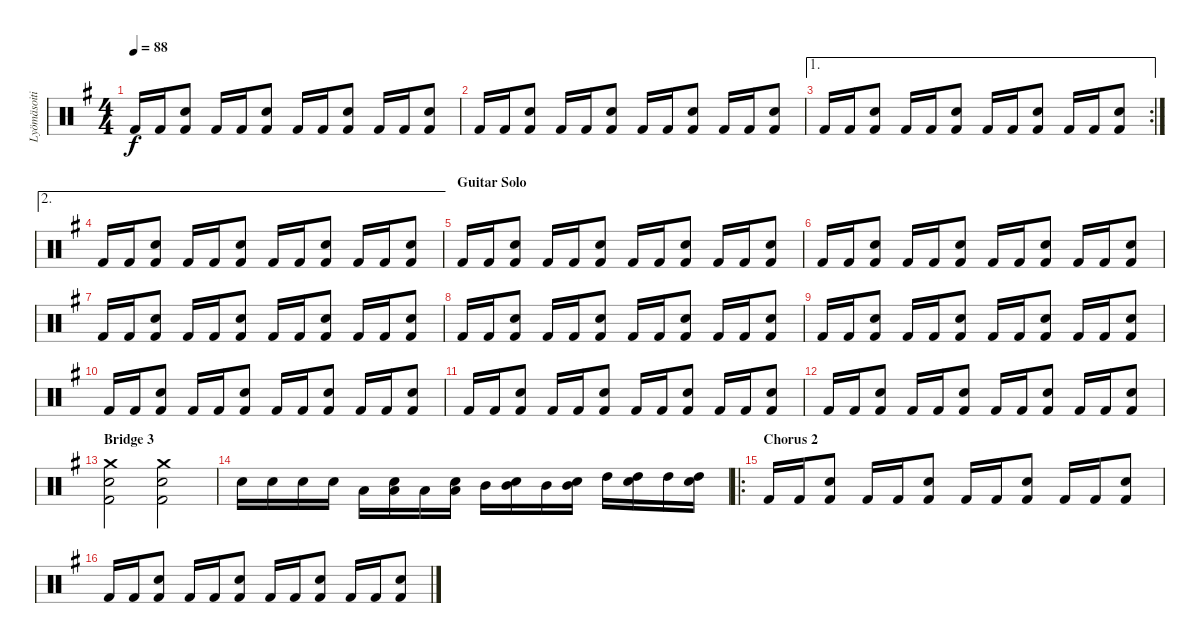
\track ("Lyömäsoitin" "Lyömäsoiti") {instrument percussion}
\staff {score}
\articulation defaults
\ts (4 4)
\tempo 88
\clef neutral
\ks eminor "Kick (hit) 2".16{dy f} "Kick (hit) 2".16
("Snare (hit) 2" "Kick (hit) 2").8 "Kick (hit) 2".16 "Kick (hit) 2".16 ("Snare (hit) 2" "Kick (hit) 2").8 "Kick (hit) 2".16 "Kick (hit) 2".16 ("Snare (hit) 2" "Kick (hit) 2").8 "Kick (hit) 2".16 "Kick (hit) 2".16 ("Snare (hit) 2" "Kick (hit) 2").8 |
"Kick (hit) 2".16 "Kick (hit) 2".16 ("Snare (hit) 2" "Kick (hit) 2").8 "Kick (hit) 2".16 "Kick (hit) 2".16 ("Snare (hit) 2" "Kick (hit) 2").8 "Kick (hit) 2".16 "Kick (hit) 2".16 ("Snare (hit) 2" "Kick (hit) 2").8 "Kick (hit) 2".16 "Kick (hit) 2".16 ("Snare (hit) 2" "Kick (hit) 2").8 |
\ae 1
\rc 2 "Kick (hit) 2".16 "Kick (hit) 2".16
("Snare (hit) 2" "Kick (hit) 2").8 "Kick (hit) 2".16 "Kick (hit) 2".16 ("Snare (hit) 2" "Kick (hit) 2").8 "Kick (hit) 2".16 "Kick (hit) 2".16 ("Snare (hit) 2" "Kick (hit) 2").8 "Kick (hit) 2".16 "Kick (hit) 2".16 ("Snare (hit) 2" "Kick (hit) 2").8 |
\ae 2 "Kick (hit) 2".16 "Kick (hit) 2".16
("Snare (hit) 2" "Kick (hit) 2").8 "Kick (hit) 2".16 "Kick (hit) 2".16 ("Snare (hit) 2" "Kick (hit) 2").8 "Kick (hit) 2".16 "Kick (hit) 2".16 ("Snare (hit) 2" "Kick (hit) 2").8 "Kick (hit) 2".16 "Kick (hit) 2".16 ("Snare (hit) 2" "Kick (hit) 2").8 |
\section ("" "Guitar Solo")
"Kick (hit) 2".16 "Kick (hit) 2".16 ("Snare (hit) 2" "Kick (hit) 2").8 "Kick (hit) 2".16 "Kick (hit) 2".16 ("Snare (hit) 2" "Kick (hit) 2").8 "Kick (hit) 2".16 "Kick (hit) 2".16 ("Snare (hit) 2" "Kick (hit) 2").8 "Kick (hit) 2".16 "Kick (hit) 2".16 ("Snare (hit) 2" "Kick (hit) 2").8 |
"Kick (hit) 2".16 "Kick (hit) 2".16 ("Snare (hit) 2" "Kick (hit) 2").8 "Kick (hit) 2".16 "Kick (hit) 2".16 ("Snare (hit) 2" "Kick (hit) 2").8 "Kick (hit) 2".16 "Kick (hit) 2".16 ("Snare (hit) 2" "Kick (hit) 2").8 "Kick (hit) 2".16 "Kick (hit) 2".16 ("Snare (hit) 2" "Kick (hit) 2").8 |
"Kick (hit) 2".16 "Kick (hit) 2".16 ("Snare (hit) 2" "Kick (hit) 2").8 "Kick (hit) 2".16 "Kick (hit) 2".16 ("Snare (hit) 2" "Kick (hit) 2").8 "Kick (hit) 2".16 "Kick (hit) 2".16 ("Snare (hit) 2" "Kick (hit) 2").8 "Kick (hit) 2".16 "Kick (hit) 2".16 ("Snare (hit) 2" "Kick (hit) 2").8 |
"Kick (hit) 2".16 "Kick (hit) 2".16 ("Snare (hit) 2" "Kick (hit) 2").8 "Kick (hit) 2".16 "Kick (hit) 2".16 ("Snare (hit) 2" "Kick (hit) 2").8 "Kick (hit) 2".16 "Kick (hit) 2".16 ("Snare (hit) 2" "Kick (hit) 2").8 "Kick (hit) 2".16 "Kick (hit) 2".16 ("Snare (hit) 2" "Kick (hit) 2").8 |
"Kick (hit) 2".16 "Kick (hit) 2".16 ("Snare (hit) 2" "Kick (hit) 2").8 "Kick (hit) 2".16 "Kick (hit) 2".16 ("Snare (hit) 2" "Kick (hit) 2").8 "Kick (hit) 2".16 "Kick (hit) 2".16 ("Snare (hit) 2" "Kick (hit) 2").8 "Kick (hit) 2".16 "Kick (hit) 2".16 ("Snare (hit) 2" "Kick (hit) 2").8 |
"Kick (hit) 2".16 "Kick (hit) 2".16 ("Snare (hit) 2" "Kick (hit) 2").8 "Kick (hit) 2".16 "Kick (hit) 2".16 ("Snare (hit) 2" "Kick (hit) 2").8 "Kick (hit) 2".16 "Kick (hit) 2".16 ("Snare (hit) 2" "Kick (hit) 2").8 "Kick (hit) 2".16 "Kick (hit) 2".16 ("Snare (hit) 2" "Kick (hit) 2").8 |
"Kick (hit) 2".16 "Kick (hit) 2".16 ("Snare (hit) 2" "Kick (hit) 2").8 "Kick (hit) 2".16 "Kick (hit) 2".16 ("Snare (hit) 2" "Kick (hit) 2").8 "Kick (hit) 2".16 "Kick (hit) 2".16 ("Snare (hit) 2" "Kick (hit) 2").8 "Kick (hit) 2".16 "Kick (hit) 2".16 ("Snare (hit) 2" "Kick (hit) 2").8 |
"Kick (hit) 2".16 "Kick (hit) 2".16 ("Snare (hit) 2" "Kick (hit) 2").8 "Kick (hit) 2".16 "Kick (hit) 2".16 ("Snare (hit) 2" "Kick (hit) 2").8 "Kick (hit) 2".16 "Kick (hit) 2".16 ("Snare (hit) 2" "Kick (hit) 2").8 "Kick (hit) 2".16 "Kick (hit) 2".16 ("Snare (hit) 2" "Kick (hit) 2").8 |
\section ("" "Bridge 3")
("Crash medium (hit)" "Snare (hit) 2" "Kick (hit) 2").2 ("Crash medium (hit)" "Snare (hit) 2" "Kick (hit) 2").2 |
"Snare (hit) 2".16 "Snare (hit) 2".16 "Snare (hit) 2".16 "Snare (hit) 2".16 "Low Tom (hit)".16 ("Low Tom (hit)" "Snare (hit) 2").16 "Low Tom (hit)".16 ("Low Tom (hit)" "Snare (hit) 2").16 "Mid Tom (hit)".16 ("Mid Tom (hit)" "Snare (hit) 2").16 "Mid Tom (hit)".16 ("Mid Tom (hit)" "Snare (hit) 2").16 "High Tom (hit)".16 ("High Tom (hit)" "Snare (hit) 2").16 "High Tom (hit)".16 ("High Tom (hit)" "Snare (hit) 2").16 |
\ro
\section ("" "Chorus 2")
"Kick (hit) 2".16 "Kick (hit) 2".16 ("Snare (hit) 2" "Kick (hit) 2").8 "Kick (hit) 2".16 "Kick (hit) 2".16 ("Snare (hit) 2" "Kick (hit) 2").8 "Kick (hit) 2".16 "Kick (hit) 2".16 ("Snare (hit) 2" "Kick (hit) 2").8 "Kick (hit) 2".16 "Kick (hit) 2".16 ("Snare (hit) 2" "Kick (hit) 2").8 |
"Kick (hit) 2".16 "Kick (hit) 2".16 ("Snare (hit) 2" "Kick (hit) 2").8 "Kick (hit) 2".16 "Kick (hit) 2".16 ("Snare (hit) 2" "Kick (hit) 2").8 "Kick (hit) 2".16 "Kick (hit) 2".16 ("Snare (hit) 2" "Kick (hit) 2").8 "Kick (hit) 2".16 "Kick (hit) 2".16 ("Snare (hit) 2" "Kick (hit) 2").8
